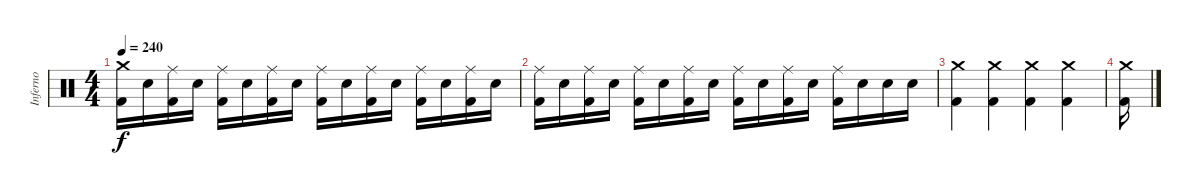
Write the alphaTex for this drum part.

\track ("Inferno" "Inferno") {instrument percussion}
\staff {score}
\articulation defaults
\ts (4 4)
\tempo 240
\clef neutral
\ks c
("Crash medium (hit)" "Kick (hit) 2").16{dy f} "Snare (hit) 2".16 ("Ride (middle)" "Kick (hit) 2").16 "Snare (hit) 2".16 ("Ride (middle)" "Kick (hit) 2").16 "Snare (hit) 2".16 ("Ride (middle)" "Kick (hit) 2").16 "Snare (hit) 2".16 ("Ride (middle)" "Kick (hit) 2").16 "Snare (hit) 2".16 ("Ride (middle)" "Kick (hit) 2").16 "Snare (hit) 2".16 ("Ride (middle)" "Kick (hit) 2").16 "Snare (hit) 2".16 ("Ride (middle)" "Kick (hit) 2").16 "Snare (hit) 2".16 |
("Ride (middle)" "Kick (hit) 2").16 "Snare (hit) 2".16 ("Ride (middle)" "Kick (hit) 2").16 "Snare (hit) 2".16 ("Ride (middle)" "Kick (hit) 2").16 "Snare (hit) 2".16 ("Ride (middle)" "Kick (hit) 2").16 "Snare (hit) 2".16 ("Ride (middle)" "Kick (hit) 2").16 "Snare (hit) 2".16 ("Ride (middle)" "Kick (hit) 2").16 "Snare (hit) 2".16 ("Ride (middle)" "Kick (hit) 2").16 "Snare (hit) 2".16 "Snare (hit) 2".16 "Snare (hit) 2".16 |
("Crash medium (hit)" "Kick (hit) 2").4 ("Crash medium (hit)" "Kick (hit) 2").4 ("Crash medium (hit)" "Kick (hit) 2").4 ("Crash medium (hit)" "Kick (hit) 2").4 |
("Crash medium (hit)" "Kick (hit) 2").16
